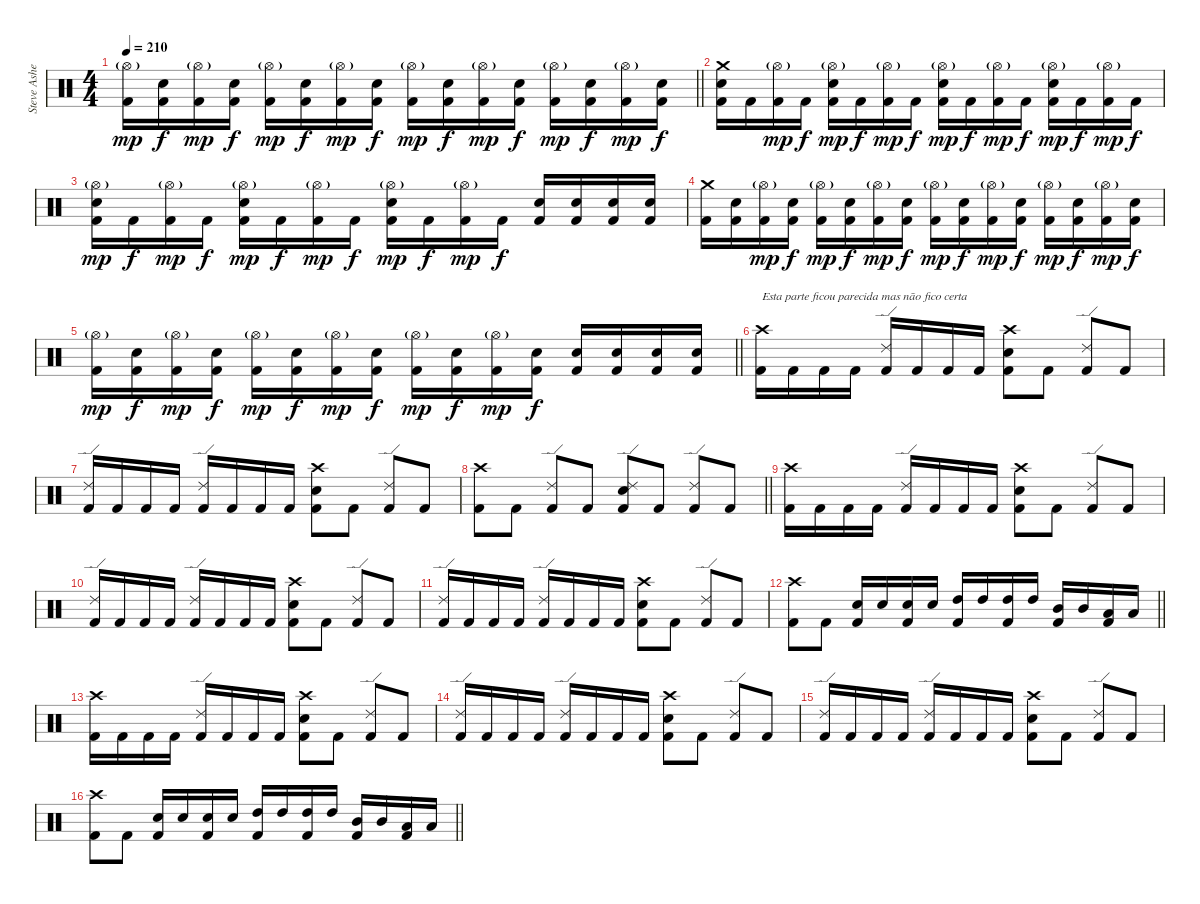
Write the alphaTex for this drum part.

\track ("Steve Asheim" "Steve Ashe") {instrument percussion}
\staff {score}
\articulation defaults
\ts (4 4)
\tempo 210
\clef neutral
\barLineRight lightlight
\ks c
("Hi-Hat (open)"{g} "Kick (hit) 2").16{dy mp} ("Electric Snare (hit)" "Kick (hit) 2").16{dy f} ("Hi-Hat (open)"{g} "Kick (hit) 2").16{dy mp} ("Electric Snare (hit)" "Kick (hit) 2").16{dy f} ("Hi-Hat (open)"{g} "Kick (hit) 2").16{dy mp} ("Electric Snare (hit)" "Kick (hit) 2").16{dy f} ("Hi-Hat (open)"{g} "Kick (hit) 2").16{dy mp} ("Electric Snare (hit)" "Kick (hit) 2").16{dy f} ("Hi-Hat (open)"{g} "Kick (hit) 2").16{dy mp} ("Electric Snare (hit)" "Kick (hit) 2").16{dy f} ("Hi-Hat (open)"{g} "Kick (hit) 2").16{dy mp} ("Electric Snare (hit)" "Kick (hit) 2").16{dy f} ("Hi-Hat (open)"{g} "Kick (hit) 2").16{dy mp} ("Electric Snare (hit)" "Kick (hit) 2").16{dy f} ("Hi-Hat (open)"{g} "Kick (hit) 2").16{dy mp} ("Electric Snare (hit)" "Kick (hit) 2").16{dy f} |
("Crash medium (hit)" "Electric Snare (hit)" "Kick (hit) 2").16 "Kick (hit) 2".16 ("Hi-Hat (open)"{g} "Kick (hit) 2").16{dy mp} "Kick (hit) 2".16{dy f} ("Hi-Hat (open)"{g} "Electric Snare (hit)" "Kick (hit) 2").16{dy mp} "Kick (hit) 2".16{dy f} ("Hi-Hat (open)"{g} "Kick (hit) 2").16{dy mp} "Kick (hit) 2".16{dy f} ("Hi-Hat (open)"{g} "Electric Snare (hit)" "Kick (hit) 2").16{dy mp} "Kick (hit) 2".16{dy f} ("Hi-Hat (open)"{g} "Kick (hit) 2").16{dy mp} "Kick (hit) 2".16{dy f} ("Hi-Hat (open)"{g} "Electric Snare (hit)" "Kick (hit) 2").16{dy mp} "Kick (hit) 2".16{dy f} ("Hi-Hat (open)"{g} "Kick (hit) 2").16{dy mp} "Kick (hit) 2".16{dy f} |
("Hi-Hat (open)"{g} "Electric Snare (hit)" "Kick (hit) 2").16{dy mp} "Kick (hit) 2".16{dy f} ("Hi-Hat (open)"{g} "Kick (hit) 2").16{dy mp} "Kick (hit) 2".16{dy f} ("Hi-Hat (open)"{g} "Electric Snare (hit)" "Kick (hit) 2").16{dy mp} "Kick (hit) 2".16{dy f} ("Hi-Hat (open)"{g} "Kick (hit) 2").16{dy mp} "Kick (hit) 2".16{dy f} ("Hi-Hat (open)"{g} "Electric Snare (hit)" "Kick (hit) 2").16{dy mp} "Kick (hit) 2".16{dy f} ("Hi-Hat (open)"{g} "Kick (hit) 2").16{dy mp} "Kick (hit) 2".16{dy f} ("Electric Snare (hit)" "Kick (hit) 2").16 ("Electric Snare (hit)" "Kick (hit) 2").16 ("Electric Snare (hit)" "Kick (hit) 2").16 ("Electric Snare (hit)" "Kick (hit) 2").16 |
("Crash medium (hit)" "Kick (hit) 2").16 ("Electric Snare (hit)" "Kick (hit) 2").16 ("Hi-Hat (open)"{g} "Kick (hit) 2").16{dy mp} ("Electric Snare (hit)" "Kick (hit) 2").16{dy f} ("Hi-Hat (open)"{g} "Kick (hit) 2").16{dy mp} ("Electric Snare (hit)" "Kick (hit) 2").16{dy f} ("Hi-Hat (open)"{g} "Kick (hit) 2").16{dy mp} ("Electric Snare (hit)" "Kick (hit) 2").16{dy f} ("Hi-Hat (open)"{g} "Kick (hit) 2").16{dy mp} ("Electric Snare (hit)" "Kick (hit) 2").16{dy f} ("Hi-Hat (open)"{g} "Kick (hit) 2").16{dy mp} ("Electric Snare (hit)" "Kick (hit) 2").16{dy f} ("Hi-Hat (open)"{g} "Kick (hit) 2").16{dy mp} ("Electric Snare (hit)" "Kick (hit) 2").16{dy f} ("Hi-Hat (open)"{g} "Kick (hit) 2").16{dy mp} ("Electric Snare (hit)" "Kick (hit) 2").16{dy f} |
\barLineRight lightlight
("Hi-Hat (open)"{g} "Kick (hit) 2").16{dy mp} ("Electric Snare (hit)" "Kick (hit) 2").16{dy f} ("Hi-Hat (open)"{g} "Kick (hit) 2").16{dy mp} ("Electric Snare (hit)" "Kick (hit) 2").16{dy f} ("Hi-Hat (open)"{g} "Kick (hit) 2").16{dy mp} ("Electric Snare (hit)" "Kick (hit) 2").16{dy f} ("Hi-Hat (open)"{g} "Kick (hit) 2").16{dy mp} ("Electric Snare (hit)" "Kick (hit) 2").16{dy f} ("Hi-Hat (open)"{g} "Kick (hit) 2").16{dy mp} ("Electric Snare (hit)" "Kick (hit) 2").16{dy f} ("Hi-Hat (open)"{g} "Kick (hit) 2").16{dy mp} ("Electric Snare (hit)" "Kick (hit) 2").16{dy f} ("Electric Snare (hit)" "Kick (hit) 2").16 ("Electric Snare (hit)" "Kick (hit) 2").16 ("Electric Snare (hit)" "Kick (hit) 2").16 ("Electric Snare (hit)" "Kick (hit) 2").16 |
("Crash high (hit)" "Kick (hit) 2").16{txt "Esta parte ficou parecida mas não fico certa"} "Kick (hit) 2".16 "Kick (hit) 2".16 "Kick (hit) 2".16 ("Ride (edge) 2" "Kick (hit) 2").16 "Kick (hit) 2".16 "Kick (hit) 2".16 "Kick (hit) 2".16 ("Crash high (hit)" "Electric Snare (hit)" "Kick (hit) 2").8 "Kick (hit) 2".8 ("Ride (edge) 2" "Kick (hit) 2").8 "Kick (hit) 2".8 |
("Ride (edge) 2" "Kick (hit) 2").16 "Kick (hit) 2".16 "Kick (hit) 2".16 "Kick (hit) 2".16 ("Ride (edge) 2" "Kick (hit) 2").16 "Kick (hit) 2".16 "Kick (hit) 2".16 "Kick (hit) 2".16 ("Crash high (hit)" "Electric Snare (hit)" "Kick (hit) 2").8 "Kick (hit) 2".8 ("Ride (edge) 2" "Kick (hit) 2").8 "Kick (hit) 2".8 |
\barLineRight lightlight
("Crash high (hit)" "Kick (hit) 2").8 "Kick (hit) 2".8 ("Ride (edge) 2" "Kick (hit) 2").8 "Kick (hit) 2".8 ("Ride (edge) 2" "Electric Snare (hit)" "Kick (hit) 2").8 "Kick (hit) 2".8 ("Ride (edge) 2" "Kick (hit) 2").8 "Kick (hit) 2".8 |
("Crash high (hit)" "Kick (hit) 2").16 "Kick (hit) 2".16 "Kick (hit) 2".16 "Kick (hit) 2".16 ("Ride (edge) 2" "Kick (hit) 2").16 "Kick (hit) 2".16 "Kick (hit) 2".16 "Kick (hit) 2".16 ("Crash high (hit)" "Electric Snare (hit)" "Kick (hit) 2").8 "Kick (hit) 2".8 ("Ride (edge) 2" "Kick (hit) 2").8 "Kick (hit) 2".8 |
("Ride (edge) 2" "Kick (hit) 2").16 "Kick (hit) 2".16 "Kick (hit) 2".16 "Kick (hit) 2".16 ("Ride (edge) 2" "Kick (hit) 2").16 "Kick (hit) 2".16 "Kick (hit) 2".16 "Kick (hit) 2".16 ("Crash high (hit)" "Electric Snare (hit)" "Kick (hit) 2").8 "Kick (hit) 2".8 ("Ride (edge) 2" "Kick (hit) 2").8 "Kick (hit) 2".8 |
("Ride (edge) 2" "Kick (hit) 2").16 "Kick (hit) 2".16 "Kick (hit) 2".16 "Kick (hit) 2".16 ("Ride (edge) 2" "Kick (hit) 2").16 "Kick (hit) 2".16 "Kick (hit) 2".16 "Kick (hit) 2".16 ("Crash high (hit)" "Electric Snare (hit)" "Kick (hit) 2").8 "Kick (hit) 2".8 ("Ride (edge) 2" "Kick (hit) 2").8 "Kick (hit) 2".8 |
\barLineRight lightlight
("Crash high (hit)" "Kick (hit) 2").8 "Kick (hit) 2".8 ("Electric Snare (hit)" "Kick (hit) 2").16 "Electric Snare (hit)".16 ("Electric Snare (hit)" "Kick (hit) 2").16 "Electric Snare (hit)".16 ("High Tom (hit)" "Kick (hit) 2").16 "High Tom (hit)".16 ("High Tom (hit)" "Kick (hit) 2").16 "High Tom (hit)".16 ("Mid Tom (hit)" "Kick (hit) 2").16 "Mid Tom (hit)".16 ("Low Tom (hit)" "Kick (hit) 2").16 "Low Tom (hit)".16 |
("Crash high (hit)" "Kick (hit) 2").16 "Kick (hit) 2".16 "Kick (hit) 2".16 "Kick (hit) 2".16 ("Ride (edge) 2" "Kick (hit) 2").16 "Kick (hit) 2".16 "Kick (hit) 2".16 "Kick (hit) 2".16 ("Crash high (hit)" "Electric Snare (hit)" "Kick (hit) 2").8 "Kick (hit) 2".8 ("Ride (edge) 2" "Kick (hit) 2").8 "Kick (hit) 2".8 |
("Ride (edge) 2" "Kick (hit) 2").16 "Kick (hit) 2".16 "Kick (hit) 2".16 "Kick (hit) 2".16 ("Ride (edge) 2" "Kick (hit) 2").16 "Kick (hit) 2".16 "Kick (hit) 2".16 "Kick (hit) 2".16 ("Crash high (hit)" "Electric Snare (hit)" "Kick (hit) 2").8 "Kick (hit) 2".8 ("Ride (edge) 2" "Kick (hit) 2").8 "Kick (hit) 2".8 |
("Ride (edge) 2" "Kick (hit) 2").16 "Kick (hit) 2".16 "Kick (hit) 2".16 "Kick (hit) 2".16 ("Ride (edge) 2" "Kick (hit) 2").16 "Kick (hit) 2".16 "Kick (hit) 2".16 "Kick (hit) 2".16 ("Crash high (hit)" "Electric Snare (hit)" "Kick (hit) 2").8 "Kick (hit) 2".8 ("Ride (edge) 2" "Kick (hit) 2").8 "Kick (hit) 2".8 |
\barLineRight lightlight
("Crash high (hit)" "Kick (hit) 2").8 "Kick (hit) 2".8 ("Electric Snare (hit)" "Kick (hit) 2").16 "Electric Snare (hit)".16 ("Electric Snare (hit)" "Kick (hit) 2").16 "Electric Snare (hit)".16 ("High Tom (hit)" "Kick (hit) 2").16 "High Tom (hit)".16 ("High Tom (hit)" "Kick (hit) 2").16 "High Tom (hit)".16 ("Mid Tom (hit)" "Kick (hit) 2").16 "Mid Tom (hit)".16 ("Low Tom (hit)" "Kick (hit) 2").16 "Low Tom (hit)".16
